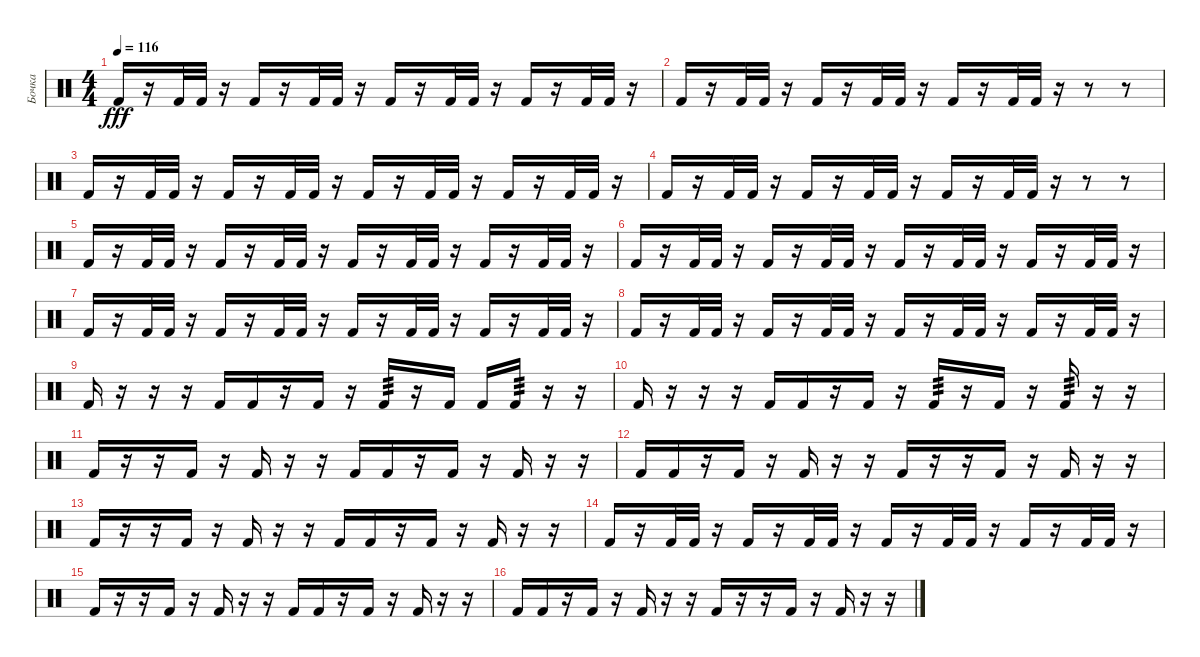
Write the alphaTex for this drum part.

\track ("Бочка" "Бочка") {instrument percussion}
\staff {score}
\articulation defaults
\ts (4 4)
\tempo 116
\clef neutral
\ks c "Kick (hit) 2".16{dy fff}
r.16 "Kick (hit) 2".32 "Kick (hit) 2".32 r.16 "Kick (hit) 2".16 r.16 "Kick (hit) 2".32 "Kick (hit) 2".32 r.16 "Kick (hit) 2".16 r.16 "Kick (hit) 2".32 "Kick (hit) 2".32 r.16 "Kick (hit) 2".16 r.16 "Kick (hit) 2".32 "Kick (hit) 2".32 r.16 |
"Kick (hit) 2".16 r.16 "Kick (hit) 2".32 "Kick (hit) 2".32 r.16 "Kick (hit) 2".16 r.16 "Kick (hit) 2".32 "Kick (hit) 2".32 r.16 "Kick (hit) 2".16 r.16 "Kick (hit) 2".32 "Kick (hit) 2".32 r.16 r.8 r.8 |
"Kick (hit) 2".16 r.16 "Kick (hit) 2".32 "Kick (hit) 2".32 r.16 "Kick (hit) 2".16 r.16 "Kick (hit) 2".32 "Kick (hit) 2".32 r.16 "Kick (hit) 2".16 r.16 "Kick (hit) 2".32 "Kick (hit) 2".32 r.16 "Kick (hit) 2".16 r.16 "Kick (hit) 2".32 "Kick (hit) 2".32 r.16 |
"Kick (hit) 2".16 r.16 "Kick (hit) 2".32 "Kick (hit) 2".32 r.16 "Kick (hit) 2".16 r.16 "Kick (hit) 2".32 "Kick (hit) 2".32 r.16 "Kick (hit) 2".16 r.16 "Kick (hit) 2".32 "Kick (hit) 2".32 r.16 r.8 r.8 |
"Kick (hit) 2".16 r.16 "Kick (hit) 2".32 "Kick (hit) 2".32 r.16 "Kick (hit) 2".16 r.16 "Kick (hit) 2".32 "Kick (hit) 2".32 r.16 "Kick (hit) 2".16 r.16 "Kick (hit) 2".32 "Kick (hit) 2".32 r.16 "Kick (hit) 2".16 r.16 "Kick (hit) 2".32 "Kick (hit) 2".32 r.16 |
"Kick (hit) 2".16 r.16 "Kick (hit) 2".32 "Kick (hit) 2".32 r.16 "Kick (hit) 2".16 r.16 "Kick (hit) 2".32 "Kick (hit) 2".32 r.16 "Kick (hit) 2".16 r.16 "Kick (hit) 2".32 "Kick (hit) 2".32 r.16 "Kick (hit) 2".16 r.16 "Kick (hit) 2".32 "Kick (hit) 2".32 r.16 |
"Kick (hit) 2".16 r.16 "Kick (hit) 2".32 "Kick (hit) 2".32 r.16 "Kick (hit) 2".16 r.16 "Kick (hit) 2".32 "Kick (hit) 2".32 r.16 "Kick (hit) 2".16 r.16 "Kick (hit) 2".32 "Kick (hit) 2".32 r.16 "Kick (hit) 2".16 r.16 "Kick (hit) 2".32 "Kick (hit) 2".32 r.16 |
"Kick (hit) 2".16 r.16 "Kick (hit) 2".32 "Kick (hit) 2".32 r.16 "Kick (hit) 2".16 r.16 "Kick (hit) 2".32 "Kick (hit) 2".32 r.16 "Kick (hit) 2".16 r.16 "Kick (hit) 2".32 "Kick (hit) 2".32 r.16 "Kick (hit) 2".16 r.16 "Kick (hit) 2".32 "Kick (hit) 2".32 r.16 |
"Kick (hit) 2".16 r.16 r.16 r.16 "Kick (hit) 2".16 "Kick (hit) 2".16 r.16 "Kick (hit) 2".16 r.16 "Kick (hit) 2".16{tp 3} r.16 "Kick (hit) 2".16 "Kick (hit) 2".16 "Kick (hit) 2".16{tp 3} r.16 r.16 |
"Kick (hit) 2".16 r.16 r.16 r.16 "Kick (hit) 2".16 "Kick (hit) 2".16 r.16 "Kick (hit) 2".16 r.16 "Kick (hit) 2".16{tp 3} r.16 "Kick (hit) 2".16 r.16 "Kick (hit) 2".16{tp 3} r.16 r.16 |
"Kick (hit) 2".16 r.16 r.16 "Kick (hit) 2".16 r.16 "Kick (hit) 2".16 r.16 r.16 "Kick (hit) 2".16 "Kick (hit) 2".16 r.16 "Kick (hit) 2".16 r.16 "Kick (hit) 2".16 r.16 r.16 |
"Kick (hit) 2".16 "Kick (hit) 2".16 r.16 "Kick (hit) 2".16 r.16 "Kick (hit) 2".16 r.16 r.16 "Kick (hit) 2".16 r.16 r.16 "Kick (hit) 2".16 r.16 "Kick (hit) 2".16 r.16 r.16 |
"Kick (hit) 2".16 r.16 r.16 "Kick (hit) 2".16 r.16 "Kick (hit) 2".16 r.16 r.16 "Kick (hit) 2".16 "Kick (hit) 2".16 r.16 "Kick (hit) 2".16 r.16 "Kick (hit) 2".16 r.16 r.16 |
"Kick (hit) 2".16 r.16 "Kick (hit) 2".32 "Kick (hit) 2".32 r.16 "Kick (hit) 2".16 r.16 "Kick (hit) 2".32 "Kick (hit) 2".32 r.16 "Kick (hit) 2".16 r.16 "Kick (hit) 2".32 "Kick (hit) 2".32 r.16 "Kick (hit) 2".16 r.16 "Kick (hit) 2".32 "Kick (hit) 2".32 r.16 |
"Kick (hit) 2".16 r.16 r.16 "Kick (hit) 2".16 r.16 "Kick (hit) 2".16 r.16 r.16 "Kick (hit) 2".16 "Kick (hit) 2".16 r.16 "Kick (hit) 2".16 r.16 "Kick (hit) 2".16 r.16 r.16 |
"Kick (hit) 2".16 "Kick (hit) 2".16 r.16 "Kick (hit) 2".16 r.16 "Kick (hit) 2".16 r.16 r.16 "Kick (hit) 2".16 r.16 r.16 "Kick (hit) 2".16 r.16 "Kick (hit) 2".16 r.16 r.16
